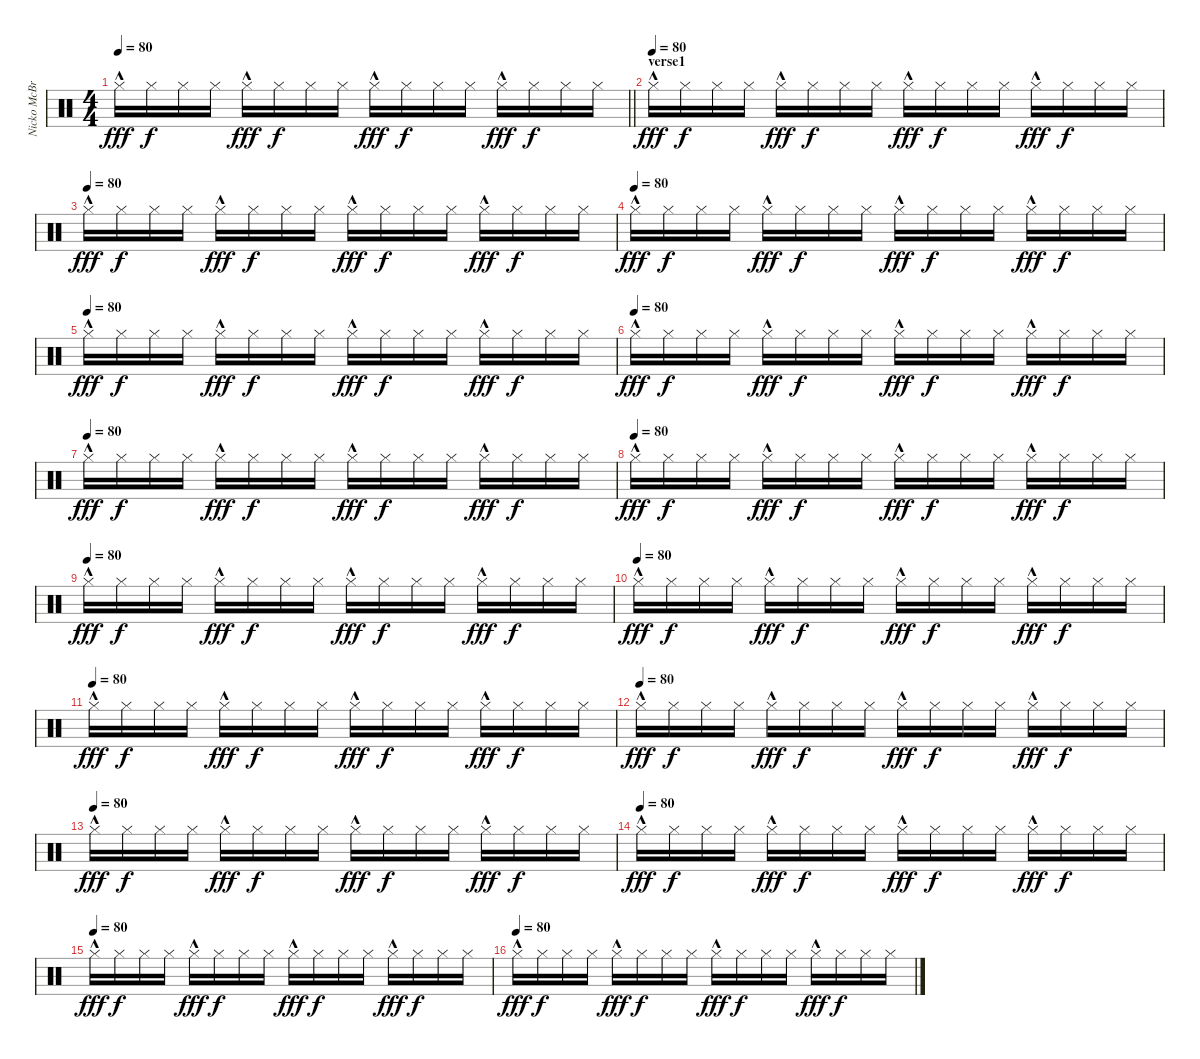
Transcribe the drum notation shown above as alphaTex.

\track ("Nicko McBrain" "Nicko McBr") {instrument percussion}
\staff {score}
\articulation defaults
\ts (4 4)
\tempo 80
\clef neutral
\barLineRight lightlight
\ks c "Hi-Hat (closed)"{hac}.16{dy fff} "Hi-Hat (closed)".16{dy f} "Hi-Hat (closed)".16 "Hi-Hat (closed)".16 "Hi-Hat (closed)"{hac}.16{dy fff} "Hi-Hat (closed)".16{dy f} "Hi-Hat (closed)".16 "Hi-Hat (closed)".16 "Hi-Hat (closed)"{hac}.16{dy fff} "Hi-Hat (closed)".16{dy f} "Hi-Hat (closed)".16 "Hi-Hat (closed)".16 "Hi-Hat (closed)"{hac}.16{dy fff} "Hi-Hat (closed)".16{dy f} "Hi-Hat (closed)".16 "Hi-Hat (closed)".16
|
\section ("" "verse1")
\tempo (80)
"Hi-Hat (closed)"{hac}.16{dy fff} "Hi-Hat (closed)".16{dy f} "Hi-Hat (closed)".16 "Hi-Hat (closed)".16 "Hi-Hat (closed)"{hac}.16{dy fff} "Hi-Hat (closed)".16{dy f} "Hi-Hat (closed)".16 "Hi-Hat (closed)".16 "Hi-Hat (closed)"{hac}.16{dy fff} "Hi-Hat (closed)".16{dy f} "Hi-Hat (closed)".16 "Hi-Hat (closed)".16 "Hi-Hat (closed)"{hac}.16{dy fff} "Hi-Hat (closed)".16{dy f} "Hi-Hat (closed)".16 "Hi-Hat (closed)".16 |
\tempo (80)
"Hi-Hat (closed)"{hac}.16{dy fff} "Hi-Hat (closed)".16{dy f} "Hi-Hat (closed)".16 "Hi-Hat (closed)".16 "Hi-Hat (closed)"{hac}.16{dy fff} "Hi-Hat (closed)".16{dy f} "Hi-Hat (closed)".16 "Hi-Hat (closed)".16 "Hi-Hat (closed)"{hac}.16{dy fff} "Hi-Hat (closed)".16{dy f} "Hi-Hat (closed)".16 "Hi-Hat (closed)".16 "Hi-Hat (closed)"{hac}.16{dy fff} "Hi-Hat (closed)".16{dy f} "Hi-Hat (closed)".16 "Hi-Hat (closed)".16 |
\tempo (80)
"Hi-Hat (closed)"{hac}.16{dy fff} "Hi-Hat (closed)".16{dy f} "Hi-Hat (closed)".16 "Hi-Hat (closed)".16 "Hi-Hat (closed)"{hac}.16{dy fff} "Hi-Hat (closed)".16{dy f} "Hi-Hat (closed)".16 "Hi-Hat (closed)".16 "Hi-Hat (closed)"{hac}.16{dy fff} "Hi-Hat (closed)".16{dy f} "Hi-Hat (closed)".16 "Hi-Hat (closed)".16 "Hi-Hat (closed)"{hac}.16{dy fff} "Hi-Hat (closed)".16{dy f} "Hi-Hat (closed)".16 "Hi-Hat (closed)".16 |
\tempo (80)
"Hi-Hat (closed)"{hac}.16{dy fff} "Hi-Hat (closed)".16{dy f} "Hi-Hat (closed)".16 "Hi-Hat (closed)".16 "Hi-Hat (closed)"{hac}.16{dy fff} "Hi-Hat (closed)".16{dy f} "Hi-Hat (closed)".16 "Hi-Hat (closed)".16 "Hi-Hat (closed)"{hac}.16{dy fff} "Hi-Hat (closed)".16{dy f} "Hi-Hat (closed)".16 "Hi-Hat (closed)".16 "Hi-Hat (closed)"{hac}.16{dy fff} "Hi-Hat (closed)".16{dy f} "Hi-Hat (closed)".16 "Hi-Hat (closed)".16 |
\tempo (80)
"Hi-Hat (closed)"{hac}.16{dy fff} "Hi-Hat (closed)".16{dy f} "Hi-Hat (closed)".16 "Hi-Hat (closed)".16 "Hi-Hat (closed)"{hac}.16{dy fff} "Hi-Hat (closed)".16{dy f} "Hi-Hat (closed)".16 "Hi-Hat (closed)".16 "Hi-Hat (closed)"{hac}.16{dy fff} "Hi-Hat (closed)".16{dy f} "Hi-Hat (closed)".16 "Hi-Hat (closed)".16 "Hi-Hat (closed)"{hac}.16{dy fff} "Hi-Hat (closed)".16{dy f} "Hi-Hat (closed)".16 "Hi-Hat (closed)".16 |
\tempo (80)
"Hi-Hat (closed)"{hac}.16{dy fff} "Hi-Hat (closed)".16{dy f} "Hi-Hat (closed)".16 "Hi-Hat (closed)".16 "Hi-Hat (closed)"{hac}.16{dy fff} "Hi-Hat (closed)".16{dy f} "Hi-Hat (closed)".16 "Hi-Hat (closed)".16 "Hi-Hat (closed)"{hac}.16{dy fff} "Hi-Hat (closed)".16{dy f} "Hi-Hat (closed)".16 "Hi-Hat (closed)".16 "Hi-Hat (closed)"{hac}.16{dy fff} "Hi-Hat (closed)".16{dy f} "Hi-Hat (closed)".16 "Hi-Hat (closed)".16 |
\tempo (80)
"Hi-Hat (closed)"{hac}.16{dy fff} "Hi-Hat (closed)".16{dy f} "Hi-Hat (closed)".16 "Hi-Hat (closed)".16 "Hi-Hat (closed)"{hac}.16{dy fff} "Hi-Hat (closed)".16{dy f} "Hi-Hat (closed)".16 "Hi-Hat (closed)".16 "Hi-Hat (closed)"{hac}.16{dy fff} "Hi-Hat (closed)".16{dy f} "Hi-Hat (closed)".16 "Hi-Hat (closed)".16 "Hi-Hat (closed)"{hac}.16{dy fff} "Hi-Hat (closed)".16{dy f} "Hi-Hat (closed)".16 "Hi-Hat (closed)".16 |
\tempo (80)
"Hi-Hat (closed)"{hac}.16{dy fff} "Hi-Hat (closed)".16{dy f} "Hi-Hat (closed)".16 "Hi-Hat (closed)".16 "Hi-Hat (closed)"{hac}.16{dy fff} "Hi-Hat (closed)".16{dy f} "Hi-Hat (closed)".16 "Hi-Hat (closed)".16 "Hi-Hat (closed)"{hac}.16{dy fff} "Hi-Hat (closed)".16{dy f} "Hi-Hat (closed)".16 "Hi-Hat (closed)".16 "Hi-Hat (closed)"{hac}.16{dy fff} "Hi-Hat (closed)".16{dy f} "Hi-Hat (closed)".16 "Hi-Hat (closed)".16 |
\tempo (80)
"Hi-Hat (closed)"{hac}.16{dy fff} "Hi-Hat (closed)".16{dy f} "Hi-Hat (closed)".16 "Hi-Hat (closed)".16 "Hi-Hat (closed)"{hac}.16{dy fff} "Hi-Hat (closed)".16{dy f} "Hi-Hat (closed)".16 "Hi-Hat (closed)".16 "Hi-Hat (closed)"{hac}.16{dy fff} "Hi-Hat (closed)".16{dy f} "Hi-Hat (closed)".16 "Hi-Hat (closed)".16 "Hi-Hat (closed)"{hac}.16{dy fff} "Hi-Hat (closed)".16{dy f} "Hi-Hat (closed)".16 "Hi-Hat (closed)".16 |
\tempo (80)
"Hi-Hat (closed)"{hac}.16{dy fff} "Hi-Hat (closed)".16{dy f} "Hi-Hat (closed)".16 "Hi-Hat (closed)".16 "Hi-Hat (closed)"{hac}.16{dy fff} "Hi-Hat (closed)".16{dy f} "Hi-Hat (closed)".16 "Hi-Hat (closed)".16 "Hi-Hat (closed)"{hac}.16{dy fff} "Hi-Hat (closed)".16{dy f} "Hi-Hat (closed)".16 "Hi-Hat (closed)".16 "Hi-Hat (closed)"{hac}.16{dy fff} "Hi-Hat (closed)".16{dy f} "Hi-Hat (closed)".16 "Hi-Hat (closed)".16 |
\tempo (80)
"Hi-Hat (closed)"{hac}.16{dy fff} "Hi-Hat (closed)".16{dy f} "Hi-Hat (closed)".16 "Hi-Hat (closed)".16 "Hi-Hat (closed)"{hac}.16{dy fff} "Hi-Hat (closed)".16{dy f} "Hi-Hat (closed)".16 "Hi-Hat (closed)".16 "Hi-Hat (closed)"{hac}.16{dy fff} "Hi-Hat (closed)".16{dy f} "Hi-Hat (closed)".16 "Hi-Hat (closed)".16 "Hi-Hat (closed)"{hac}.16{dy fff} "Hi-Hat (closed)".16{dy f} "Hi-Hat (closed)".16 "Hi-Hat (closed)".16 |
\tempo (80)
"Hi-Hat (closed)"{hac}.16{dy fff} "Hi-Hat (closed)".16{dy f} "Hi-Hat (closed)".16 "Hi-Hat (closed)".16 "Hi-Hat (closed)"{hac}.16{dy fff} "Hi-Hat (closed)".16{dy f} "Hi-Hat (closed)".16 "Hi-Hat (closed)".16 "Hi-Hat (closed)"{hac}.16{dy fff} "Hi-Hat (closed)".16{dy f} "Hi-Hat (closed)".16 "Hi-Hat (closed)".16 "Hi-Hat (closed)"{hac}.16{dy fff} "Hi-Hat (closed)".16{dy f} "Hi-Hat (closed)".16 "Hi-Hat (closed)".16 |
\tempo (80)
"Hi-Hat (closed)"{hac}.16{dy fff} "Hi-Hat (closed)".16{dy f} "Hi-Hat (closed)".16 "Hi-Hat (closed)".16 "Hi-Hat (closed)"{hac}.16{dy fff} "Hi-Hat (closed)".16{dy f} "Hi-Hat (closed)".16 "Hi-Hat (closed)".16 "Hi-Hat (closed)"{hac}.16{dy fff} "Hi-Hat (closed)".16{dy f} "Hi-Hat (closed)".16 "Hi-Hat (closed)".16 "Hi-Hat (closed)"{hac}.16{dy fff} "Hi-Hat (closed)".16{dy f} "Hi-Hat (closed)".16 "Hi-Hat (closed)".16 |
\tempo (80)
"Hi-Hat (closed)"{hac}.16{dy fff} "Hi-Hat (closed)".16{dy f} "Hi-Hat (closed)".16 "Hi-Hat (closed)".16 "Hi-Hat (closed)"{hac}.16{dy fff} "Hi-Hat (closed)".16{dy f} "Hi-Hat (closed)".16 "Hi-Hat (closed)".16 "Hi-Hat (closed)"{hac}.16{dy fff} "Hi-Hat (closed)".16{dy f} "Hi-Hat (closed)".16 "Hi-Hat (closed)".16 "Hi-Hat (closed)"{hac}.16{dy fff} "Hi-Hat (closed)".16{dy f} "Hi-Hat (closed)".16 "Hi-Hat (closed)".16 |
\tempo (80)
"Hi-Hat (closed)"{hac}.16{dy fff} "Hi-Hat (closed)".16{dy f} "Hi-Hat (closed)".16 "Hi-Hat (closed)".16 "Hi-Hat (closed)"{hac}.16{dy fff} "Hi-Hat (closed)".16{dy f} "Hi-Hat (closed)".16 "Hi-Hat (closed)".16 "Hi-Hat (closed)"{hac}.16{dy fff} "Hi-Hat (closed)".16{dy f} "Hi-Hat (closed)".16 "Hi-Hat (closed)".16 "Hi-Hat (closed)"{hac}.16{dy fff} "Hi-Hat (closed)".16{dy f} "Hi-Hat (closed)".16 "Hi-Hat (closed)".16
